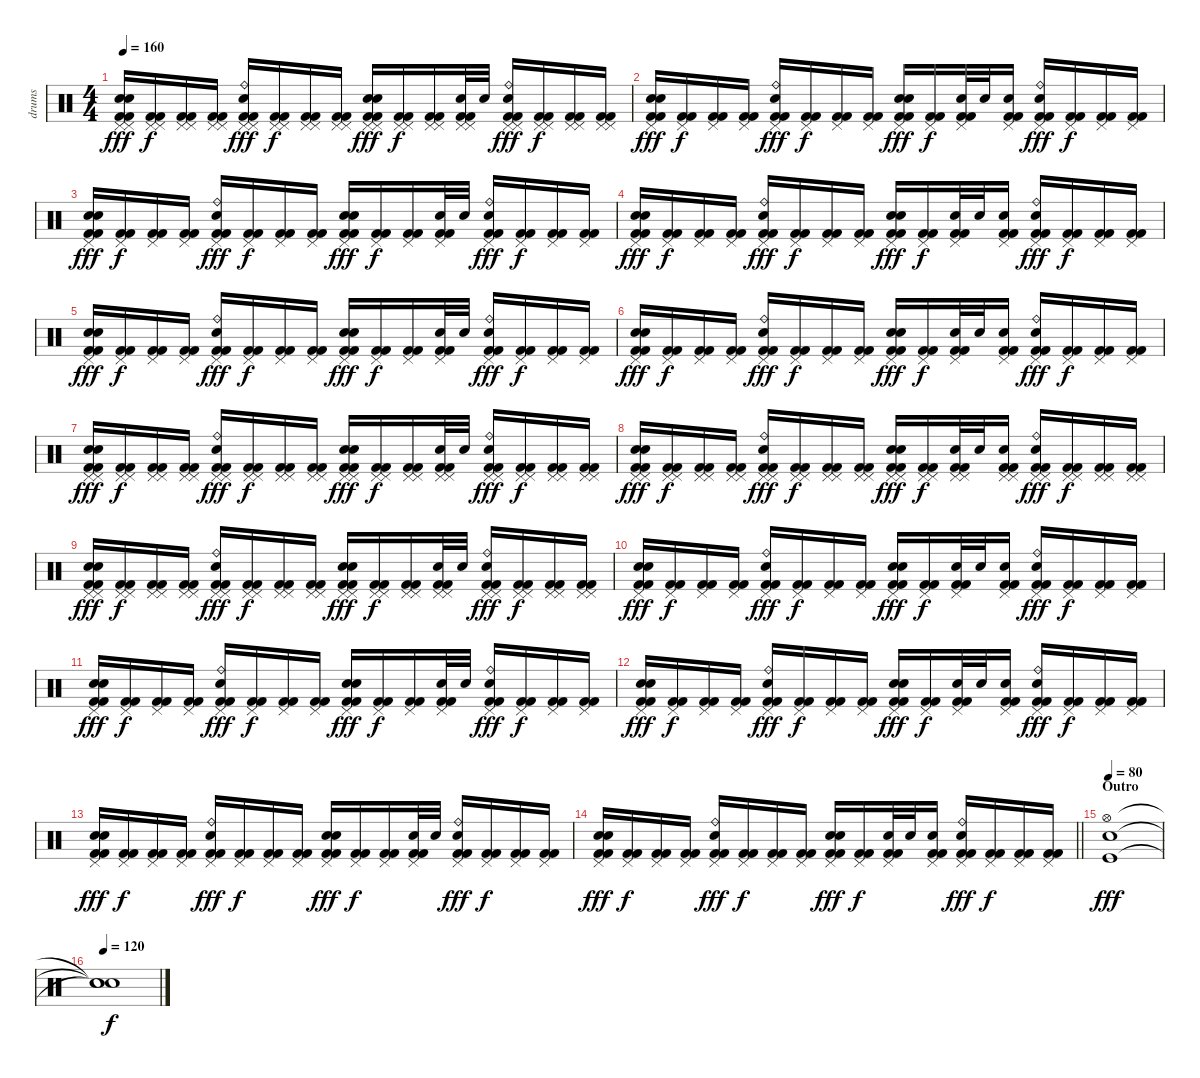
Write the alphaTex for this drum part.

\track ("drums" "drums") {instrument percussion}
\staff {score}
\articulation defaults
\ts (4 4)
\tempo 160
\clef neutral
\ks c
("Electric Snare (hit)" "Electric Snare (hit)" "Pedal Hi-Hat (hit)" "Pedal Hi-Hat (hit)" "Kick (hit) 2" "Kick (hit) 2").16{dy fff} ("Pedal Hi-Hat (hit)" "Pedal Hi-Hat (hit)" "Kick (hit) 2" "Kick (hit) 2").16{dy f} ("Pedal Hi-Hat (hit)" "Pedal Hi-Hat (hit)" "Kick (hit) 2" "Kick (hit) 2").16 ("Pedal Hi-Hat (hit)" "Pedal Hi-Hat (hit)" "Kick (hit) 2" "Kick (hit) 2").16 ("Ride (bell)" "Snare (hit) 2" "Pedal Hi-Hat (hit)" "Pedal Hi-Hat (hit)" "Kick (hit) 2" "Kick (hit) 2").16{dy fff} ("Pedal Hi-Hat (hit)" "Pedal Hi-Hat (hit)" "Kick (hit) 2" "Kick (hit) 2").16{dy f} ("Pedal Hi-Hat (hit)" "Pedal Hi-Hat (hit)" "Kick (hit) 2" "Kick (hit) 2").16 ("Pedal Hi-Hat (hit)" "Pedal Hi-Hat (hit)" "Kick (hit) 2" "Kick (hit) 2").16 ("Electric Snare (hit)" "Electric Snare (hit)" "Pedal Hi-Hat (hit)" "Pedal Hi-Hat (hit)" "Kick (hit) 2" "Kick (hit) 2").16{dy fff} ("Pedal Hi-Hat (hit)" "Pedal Hi-Hat (hit)" "Kick (hit) 2" "Kick (hit) 2").16{dy f} ("Pedal Hi-Hat (hit)" "Pedal Hi-Hat (hit)" "Kick (hit) 2" "Kick (hit) 2").16 ("Electric Snare (hit)" "Pedal Hi-Hat (hit)" "Pedal Hi-Hat (hit)" "Kick (hit) 2" "Kick (hit) 2").32 "Electric Snare (hit)".32 ("Ride (bell)" "Electric Snare (hit)" "Pedal Hi-Hat (hit)" "Pedal Hi-Hat (hit)" "Kick (hit) 2" "Kick (hit) 2").16{dy fff} ("Pedal Hi-Hat (hit)" "Pedal Hi-Hat (hit)" "Kick (hit) 2" "Kick (hit) 2").16{dy f} ("Pedal Hi-Hat (hit)" "Pedal Hi-Hat (hit)" "Kick (hit) 2" "Kick (hit) 2").16 ("Pedal Hi-Hat (hit)" "Pedal Hi-Hat (hit)" "Kick (hit) 2" "Kick (hit) 2").16 |
("Electric Snare (hit)" "Electric Snare (hit)" "Pedal Hi-Hat (hit)" "Kick (hit) 2" "Kick (hit) 2").16{dy fff} ("Pedal Hi-Hat (hit)" "Kick (hit) 2" "Kick (hit) 2").16{dy f} ("Pedal Hi-Hat (hit)" "Kick (hit) 2" "Kick (hit) 2").16 ("Pedal Hi-Hat (hit)" "Kick (hit) 2" "Kick (hit) 2").16 ("Ride (bell)" "Snare (hit) 2" "Pedal Hi-Hat (hit)" "Kick (hit) 2" "Kick (hit) 2").16{dy fff} ("Pedal Hi-Hat (hit)" "Kick (hit) 2" "Kick (hit) 2").16{dy f} ("Pedal Hi-Hat (hit)" "Kick (hit) 2" "Kick (hit) 2").16 ("Pedal Hi-Hat (hit)" "Kick (hit) 2" "Kick (hit) 2").16 ("Electric Snare (hit)" "Electric Snare (hit)" "Pedal Hi-Hat (hit)" "Kick (hit) 2" "Kick (hit) 2").16{dy fff} ("Pedal Hi-Hat (hit)" "Kick (hit) 2" "Kick (hit) 2").16{dy f} ("Electric Snare (hit)" "Pedal Hi-Hat (hit)" "Kick (hit) 2" "Kick (hit) 2").32 "Electric Snare (hit)".32 ("Electric Snare (hit)" "Pedal Hi-Hat (hit)" "Kick (hit) 2" "Kick (hit) 2").16 ("Ride (bell)" "Snare (hit) 2" "Pedal Hi-Hat (hit)" "Kick (hit) 2" "Kick (hit) 2").16{dy fff} ("Pedal Hi-Hat (hit)" "Kick (hit) 2" "Kick (hit) 2").16{dy f} ("Pedal Hi-Hat (hit)" "Kick (hit) 2" "Kick (hit) 2").16 ("Pedal Hi-Hat (hit)" "Kick (hit) 2" "Kick (hit) 2").16 |
("Electric Snare (hit)" "Electric Snare (hit)" "Pedal Hi-Hat (hit)" "Kick (hit) 2" "Kick (hit) 2").16{dy fff} ("Pedal Hi-Hat (hit)" "Kick (hit) 2" "Kick (hit) 2").16{dy f} ("Pedal Hi-Hat (hit)" "Kick (hit) 2" "Kick (hit) 2").16 ("Pedal Hi-Hat (hit)" "Kick (hit) 2" "Kick (hit) 2").16 ("Ride (bell)" "Snare (hit) 2" "Pedal Hi-Hat (hit)" "Kick (hit) 2" "Kick (hit) 2").16{dy fff} ("Pedal Hi-Hat (hit)" "Kick (hit) 2" "Kick (hit) 2").16{dy f} ("Pedal Hi-Hat (hit)" "Kick (hit) 2" "Kick (hit) 2").16 ("Pedal Hi-Hat (hit)" "Kick (hit) 2" "Kick (hit) 2").16 ("Electric Snare (hit)" "Electric Snare (hit)" "Pedal Hi-Hat (hit)" "Kick (hit) 2" "Kick (hit) 2").16{dy fff} ("Pedal Hi-Hat (hit)" "Kick (hit) 2" "Kick (hit) 2").16{dy f} ("Pedal Hi-Hat (hit)" "Kick (hit) 2" "Kick (hit) 2").16 ("Electric Snare (hit)" "Pedal Hi-Hat (hit)" "Kick (hit) 2" "Kick (hit) 2").32 "Electric Snare (hit)".32 ("Ride (bell)" "Electric Snare (hit)" "Pedal Hi-Hat (hit)" "Kick (hit) 2" "Kick (hit) 2").16{dy fff} ("Pedal Hi-Hat (hit)" "Kick (hit) 2" "Kick (hit) 2").16{dy f} ("Pedal Hi-Hat (hit)" "Kick (hit) 2" "Kick (hit) 2").16 ("Pedal Hi-Hat (hit)" "Kick (hit) 2" "Kick (hit) 2").16 |
("Electric Snare (hit)" "Electric Snare (hit)" "Pedal Hi-Hat (hit)" "Kick (hit) 2" "Kick (hit) 2").16{dy fff} ("Pedal Hi-Hat (hit)" "Kick (hit) 2" "Kick (hit) 2").16{dy f} ("Pedal Hi-Hat (hit)" "Kick (hit) 2" "Kick (hit) 2").16 ("Pedal Hi-Hat (hit)" "Kick (hit) 2" "Kick (hit) 2").16 ("Ride (bell)" "Snare (hit) 2" "Pedal Hi-Hat (hit)" "Kick (hit) 2" "Kick (hit) 2").16{dy fff} ("Pedal Hi-Hat (hit)" "Kick (hit) 2" "Kick (hit) 2").16{dy f} ("Pedal Hi-Hat (hit)" "Kick (hit) 2" "Kick (hit) 2").16 ("Pedal Hi-Hat (hit)" "Kick (hit) 2" "Kick (hit) 2").16 ("Electric Snare (hit)" "Electric Snare (hit)" "Pedal Hi-Hat (hit)" "Kick (hit) 2" "Kick (hit) 2").16{dy fff} ("Pedal Hi-Hat (hit)" "Kick (hit) 2" "Kick (hit) 2").16{dy f} ("Electric Snare (hit)" "Pedal Hi-Hat (hit)" "Kick (hit) 2" "Kick (hit) 2").32 "Electric Snare (hit)".32 ("Electric Snare (hit)" "Pedal Hi-Hat (hit)" "Kick (hit) 2" "Kick (hit) 2").16 ("Ride (bell)" "Snare (hit) 2" "Pedal Hi-Hat (hit)" "Kick (hit) 2" "Kick (hit) 2").16{dy fff} ("Pedal Hi-Hat (hit)" "Kick (hit) 2" "Kick (hit) 2").16{dy f} ("Pedal Hi-Hat (hit)" "Kick (hit) 2" "Kick (hit) 2").16 ("Pedal Hi-Hat (hit)" "Kick (hit) 2" "Kick (hit) 2").16 |
("Electric Snare (hit)" "Electric Snare (hit)" "Pedal Hi-Hat (hit)" "Kick (hit) 2" "Kick (hit) 2").16{dy fff} ("Pedal Hi-Hat (hit)" "Kick (hit) 2" "Kick (hit) 2").16{dy f} ("Pedal Hi-Hat (hit)" "Kick (hit) 2" "Kick (hit) 2").16 ("Pedal Hi-Hat (hit)" "Kick (hit) 2" "Kick (hit) 2").16 ("Ride (bell)" "Snare (hit) 2" "Pedal Hi-Hat (hit)" "Kick (hit) 2" "Kick (hit) 2").16{dy fff} ("Pedal Hi-Hat (hit)" "Kick (hit) 2" "Kick (hit) 2").16{dy f} ("Pedal Hi-Hat (hit)" "Kick (hit) 2" "Kick (hit) 2").16 ("Pedal Hi-Hat (hit)" "Kick (hit) 2" "Kick (hit) 2").16 ("Electric Snare (hit)" "Electric Snare (hit)" "Pedal Hi-Hat (hit)" "Kick (hit) 2" "Kick (hit) 2").16{dy fff} ("Pedal Hi-Hat (hit)" "Kick (hit) 2" "Kick (hit) 2").16{dy f} ("Pedal Hi-Hat (hit)" "Kick (hit) 2" "Kick (hit) 2").16 ("Electric Snare (hit)" "Pedal Hi-Hat (hit)" "Kick (hit) 2" "Kick (hit) 2").32 "Electric Snare (hit)".32 ("Ride (bell)" "Electric Snare (hit)" "Pedal Hi-Hat (hit)" "Kick (hit) 2" "Kick (hit) 2").16{dy fff} ("Pedal Hi-Hat (hit)" "Kick (hit) 2" "Kick (hit) 2").16{dy f} ("Pedal Hi-Hat (hit)" "Kick (hit) 2" "Kick (hit) 2").16 ("Pedal Hi-Hat (hit)" "Kick (hit) 2" "Kick (hit) 2").16 |
("Electric Snare (hit)" "Electric Snare (hit)" "Pedal Hi-Hat (hit)" "Kick (hit) 2" "Kick (hit) 2").16{dy fff} ("Pedal Hi-Hat (hit)" "Kick (hit) 2" "Kick (hit) 2").16{dy f} ("Pedal Hi-Hat (hit)" "Kick (hit) 2" "Kick (hit) 2").16 ("Pedal Hi-Hat (hit)" "Kick (hit) 2" "Kick (hit) 2").16 ("Ride (bell)" "Snare (hit) 2" "Pedal Hi-Hat (hit)" "Kick (hit) 2" "Kick (hit) 2").16{dy fff} ("Pedal Hi-Hat (hit)" "Kick (hit) 2" "Kick (hit) 2").16{dy f} ("Pedal Hi-Hat (hit)" "Kick (hit) 2" "Kick (hit) 2").16 ("Pedal Hi-Hat (hit)" "Kick (hit) 2" "Kick (hit) 2").16 ("Electric Snare (hit)" "Electric Snare (hit)" "Pedal Hi-Hat (hit)" "Kick (hit) 2" "Kick (hit) 2").16{dy fff} ("Pedal Hi-Hat (hit)" "Kick (hit) 2" "Kick (hit) 2").16{dy f} ("Electric Snare (hit)" "Pedal Hi-Hat (hit)" "Kick (hit) 2" "Kick (hit) 2").32 "Electric Snare (hit)".32 ("Electric Snare (hit)" "Pedal Hi-Hat (hit)" "Kick (hit) 2" "Kick (hit) 2").16 ("Ride (bell)" "Snare (hit) 2" "Pedal Hi-Hat (hit)" "Kick (hit) 2" "Kick (hit) 2").16{dy fff} ("Pedal Hi-Hat (hit)" "Kick (hit) 2" "Kick (hit) 2").16{dy f} ("Pedal Hi-Hat (hit)" "Kick (hit) 2" "Kick (hit) 2").16 ("Pedal Hi-Hat (hit)" "Kick (hit) 2" "Kick (hit) 2").16 |
("Electric Snare (hit)" "Electric Snare (hit)" "Pedal Hi-Hat (hit)" "Pedal Hi-Hat (hit)" "Kick (hit) 2" "Kick (hit) 2").16{dy fff} ("Pedal Hi-Hat (hit)" "Pedal Hi-Hat (hit)" "Kick (hit) 2" "Kick (hit) 2").16{dy f} ("Pedal Hi-Hat (hit)" "Pedal Hi-Hat (hit)" "Kick (hit) 2" "Kick (hit) 2").16 ("Pedal Hi-Hat (hit)" "Pedal Hi-Hat (hit)" "Kick (hit) 2" "Kick (hit) 2").16 ("Ride (bell)" "Snare (hit) 2" "Pedal Hi-Hat (hit)" "Pedal Hi-Hat (hit)" "Kick (hit) 2" "Kick (hit) 2").16{dy fff} ("Pedal Hi-Hat (hit)" "Pedal Hi-Hat (hit)" "Kick (hit) 2" "Kick (hit) 2").16{dy f} ("Pedal Hi-Hat (hit)" "Pedal Hi-Hat (hit)" "Kick (hit) 2" "Kick (hit) 2").16 ("Pedal Hi-Hat (hit)" "Pedal Hi-Hat (hit)" "Kick (hit) 2" "Kick (hit) 2").16 ("Electric Snare (hit)" "Electric Snare (hit)" "Pedal Hi-Hat (hit)" "Pedal Hi-Hat (hit)" "Kick (hit) 2" "Kick (hit) 2").16{dy fff} ("Pedal Hi-Hat (hit)" "Pedal Hi-Hat (hit)" "Kick (hit) 2" "Kick (hit) 2").16{dy f} ("Pedal Hi-Hat (hit)" "Pedal Hi-Hat (hit)" "Kick (hit) 2" "Kick (hit) 2").16 ("Electric Snare (hit)" "Pedal Hi-Hat (hit)" "Pedal Hi-Hat (hit)" "Kick (hit) 2" "Kick (hit) 2").32 "Electric Snare (hit)".32 ("Ride (bell)" "Electric Snare (hit)" "Pedal Hi-Hat (hit)" "Pedal Hi-Hat (hit)" "Kick (hit) 2" "Kick (hit) 2").16{dy fff} ("Pedal Hi-Hat (hit)" "Pedal Hi-Hat (hit)" "Kick (hit) 2" "Kick (hit) 2").16{dy f} ("Pedal Hi-Hat (hit)" "Pedal Hi-Hat (hit)" "Kick (hit) 2" "Kick (hit) 2").16 ("Pedal Hi-Hat (hit)" "Pedal Hi-Hat (hit)" "Kick (hit) 2" "Kick (hit) 2").16 |
("Electric Snare (hit)" "Electric Snare (hit)" "Pedal Hi-Hat (hit)" "Pedal Hi-Hat (hit)" "Kick (hit) 2" "Kick (hit) 2").16{dy fff} ("Pedal Hi-Hat (hit)" "Pedal Hi-Hat (hit)" "Kick (hit) 2" "Kick (hit) 2").16{dy f} ("Pedal Hi-Hat (hit)" "Pedal Hi-Hat (hit)" "Kick (hit) 2" "Kick (hit) 2").16 ("Pedal Hi-Hat (hit)" "Pedal Hi-Hat (hit)" "Kick (hit) 2" "Kick (hit) 2").16 ("Ride (bell)" "Snare (hit) 2" "Pedal Hi-Hat (hit)" "Pedal Hi-Hat (hit)" "Kick (hit) 2" "Kick (hit) 2").16{dy fff} ("Pedal Hi-Hat (hit)" "Pedal Hi-Hat (hit)" "Kick (hit) 2" "Kick (hit) 2").16{dy f} ("Pedal Hi-Hat (hit)" "Pedal Hi-Hat (hit)" "Kick (hit) 2" "Kick (hit) 2").16 ("Pedal Hi-Hat (hit)" "Pedal Hi-Hat (hit)" "Kick (hit) 2" "Kick (hit) 2").16 ("Electric Snare (hit)" "Electric Snare (hit)" "Pedal Hi-Hat (hit)" "Pedal Hi-Hat (hit)" "Kick (hit) 2" "Kick (hit) 2").16{dy fff} ("Pedal Hi-Hat (hit)" "Pedal Hi-Hat (hit)" "Kick (hit) 2" "Kick (hit) 2").16{dy f} ("Electric Snare (hit)" "Pedal Hi-Hat (hit)" "Pedal Hi-Hat (hit)" "Kick (hit) 2" "Kick (hit) 2").32 "Electric Snare (hit)".32 ("Electric Snare (hit)" "Pedal Hi-Hat (hit)" "Pedal Hi-Hat (hit)" "Kick (hit) 2" "Kick (hit) 2").16 ("Ride (bell)" "Snare (hit) 2" "Pedal Hi-Hat (hit)" "Pedal Hi-Hat (hit)" "Kick (hit) 2" "Kick (hit) 2").16{dy fff} ("Pedal Hi-Hat (hit)" "Pedal Hi-Hat (hit)" "Kick (hit) 2" "Kick (hit) 2").16{dy f} ("Pedal Hi-Hat (hit)" "Pedal Hi-Hat (hit)" "Kick (hit) 2" "Kick (hit) 2").16 ("Pedal Hi-Hat (hit)" "Pedal Hi-Hat (hit)" "Kick (hit) 2" "Kick (hit) 2").16 |
("Electric Snare (hit)" "Electric Snare (hit)" "Pedal Hi-Hat (hit)" "Pedal Hi-Hat (hit)" "Kick (hit) 2" "Kick (hit) 2").16{dy fff} ("Pedal Hi-Hat (hit)" "Pedal Hi-Hat (hit)" "Kick (hit) 2" "Kick (hit) 2").16{dy f} ("Pedal Hi-Hat (hit)" "Pedal Hi-Hat (hit)" "Kick (hit) 2" "Kick (hit) 2").16 ("Pedal Hi-Hat (hit)" "Pedal Hi-Hat (hit)" "Kick (hit) 2" "Kick (hit) 2").16 ("Ride (bell)" "Snare (hit) 2" "Pedal Hi-Hat (hit)" "Pedal Hi-Hat (hit)" "Kick (hit) 2" "Kick (hit) 2").16{dy fff} ("Pedal Hi-Hat (hit)" "Pedal Hi-Hat (hit)" "Kick (hit) 2" "Kick (hit) 2").16{dy f} ("Pedal Hi-Hat (hit)" "Pedal Hi-Hat (hit)" "Kick (hit) 2" "Kick (hit) 2").16 ("Pedal Hi-Hat (hit)" "Pedal Hi-Hat (hit)" "Kick (hit) 2" "Kick (hit) 2").16 ("Electric Snare (hit)" "Electric Snare (hit)" "Pedal Hi-Hat (hit)" "Pedal Hi-Hat (hit)" "Kick (hit) 2" "Kick (hit) 2").16{dy fff} ("Pedal Hi-Hat (hit)" "Pedal Hi-Hat (hit)" "Kick (hit) 2" "Kick (hit) 2").16{dy f} ("Pedal Hi-Hat (hit)" "Pedal Hi-Hat (hit)" "Kick (hit) 2" "Kick (hit) 2").16 ("Electric Snare (hit)" "Pedal Hi-Hat (hit)" "Pedal Hi-Hat (hit)" "Kick (hit) 2" "Kick (hit) 2").32 "Electric Snare (hit)".32 ("Ride (bell)" "Electric Snare (hit)" "Pedal Hi-Hat (hit)" "Pedal Hi-Hat (hit)" "Kick (hit) 2" "Kick (hit) 2").16{dy fff} ("Pedal Hi-Hat (hit)" "Pedal Hi-Hat (hit)" "Kick (hit) 2" "Kick (hit) 2").16{dy f} ("Pedal Hi-Hat (hit)" "Pedal Hi-Hat (hit)" "Kick (hit) 2" "Kick (hit) 2").16 ("Pedal Hi-Hat (hit)" "Pedal Hi-Hat (hit)" "Kick (hit) 2" "Kick (hit) 2").16 |
("Electric Snare (hit)" "Electric Snare (hit)" "Pedal Hi-Hat (hit)" "Kick (hit) 2" "Kick (hit) 2").16{dy fff} ("Pedal Hi-Hat (hit)" "Kick (hit) 2" "Kick (hit) 2").16{dy f} ("Pedal Hi-Hat (hit)" "Kick (hit) 2" "Kick (hit) 2").16 ("Pedal Hi-Hat (hit)" "Kick (hit) 2" "Kick (hit) 2").16 ("Ride (bell)" "Snare (hit) 2" "Pedal Hi-Hat (hit)" "Kick (hit) 2" "Kick (hit) 2").16{dy fff} ("Pedal Hi-Hat (hit)" "Kick (hit) 2" "Kick (hit) 2").16{dy f} ("Pedal Hi-Hat (hit)" "Kick (hit) 2" "Kick (hit) 2").16 ("Pedal Hi-Hat (hit)" "Kick (hit) 2" "Kick (hit) 2").16 ("Electric Snare (hit)" "Electric Snare (hit)" "Pedal Hi-Hat (hit)" "Kick (hit) 2" "Kick (hit) 2").16{dy fff} ("Pedal Hi-Hat (hit)" "Kick (hit) 2" "Kick (hit) 2").16{dy f} ("Electric Snare (hit)" "Pedal Hi-Hat (hit)" "Kick (hit) 2" "Kick (hit) 2").32 "Electric Snare (hit)".32 ("Electric Snare (hit)" "Pedal Hi-Hat (hit)" "Kick (hit) 2" "Kick (hit) 2").16 ("Ride (bell)" "Snare (hit) 2" "Pedal Hi-Hat (hit)" "Kick (hit) 2" "Kick (hit) 2").16{dy fff} ("Pedal Hi-Hat (hit)" "Kick (hit) 2" "Kick (hit) 2").16{dy f} ("Pedal Hi-Hat (hit)" "Kick (hit) 2" "Kick (hit) 2").16 ("Pedal Hi-Hat (hit)" "Kick (hit) 2" "Kick (hit) 2").16 |
("Electric Snare (hit)" "Electric Snare (hit)" "Pedal Hi-Hat (hit)" "Kick (hit) 2" "Kick (hit) 2").16{dy fff} ("Pedal Hi-Hat (hit)" "Kick (hit) 2" "Kick (hit) 2").16{dy f} ("Pedal Hi-Hat (hit)" "Kick (hit) 2" "Kick (hit) 2").16 ("Pedal Hi-Hat (hit)" "Kick (hit) 2" "Kick (hit) 2").16 ("Ride (bell)" "Snare (hit) 2" "Pedal Hi-Hat (hit)" "Kick (hit) 2" "Kick (hit) 2").16{dy fff} ("Pedal Hi-Hat (hit)" "Kick (hit) 2" "Kick (hit) 2").16{dy f} ("Pedal Hi-Hat (hit)" "Kick (hit) 2" "Kick (hit) 2").16 ("Pedal Hi-Hat (hit)" "Kick (hit) 2" "Kick (hit) 2").16 ("Electric Snare (hit)" "Electric Snare (hit)" "Pedal Hi-Hat (hit)" "Kick (hit) 2" "Kick (hit) 2").16{dy fff} ("Pedal Hi-Hat (hit)" "Kick (hit) 2" "Kick (hit) 2").16{dy f} ("Pedal Hi-Hat (hit)" "Kick (hit) 2" "Kick (hit) 2").16 ("Electric Snare (hit)" "Pedal Hi-Hat (hit)" "Kick (hit) 2" "Kick (hit) 2").32 "Electric Snare (hit)".32 ("Ride (bell)" "Electric Snare (hit)" "Pedal Hi-Hat (hit)" "Kick (hit) 2" "Kick (hit) 2").16{dy fff} ("Pedal Hi-Hat (hit)" "Kick (hit) 2" "Kick (hit) 2").16{dy f} ("Pedal Hi-Hat (hit)" "Kick (hit) 2" "Kick (hit) 2").16 ("Pedal Hi-Hat (hit)" "Kick (hit) 2" "Kick (hit) 2").16 |
("Electric Snare (hit)" "Electric Snare (hit)" "Pedal Hi-Hat (hit)" "Kick (hit) 2" "Kick (hit) 2").16{dy fff} ("Pedal Hi-Hat (hit)" "Kick (hit) 2" "Kick (hit) 2").16{dy f} ("Pedal Hi-Hat (hit)" "Kick (hit) 2" "Kick (hit) 2").16 ("Pedal Hi-Hat (hit)" "Kick (hit) 2" "Kick (hit) 2").16 ("Ride (bell)" "Snare (hit) 2" "Pedal Hi-Hat (hit)" "Kick (hit) 2" "Kick (hit) 2").16{dy fff} ("Pedal Hi-Hat (hit)" "Kick (hit) 2" "Kick (hit) 2").16{dy f} ("Pedal Hi-Hat (hit)" "Kick (hit) 2" "Kick (hit) 2").16 ("Pedal Hi-Hat (hit)" "Kick (hit) 2" "Kick (hit) 2").16 ("Electric Snare (hit)" "Electric Snare (hit)" "Pedal Hi-Hat (hit)" "Kick (hit) 2" "Kick (hit) 2").16{dy fff} ("Pedal Hi-Hat (hit)" "Kick (hit) 2" "Kick (hit) 2").16{dy f} ("Electric Snare (hit)" "Pedal Hi-Hat (hit)" "Kick (hit) 2" "Kick (hit) 2").32 "Electric Snare (hit)".32 ("Electric Snare (hit)" "Pedal Hi-Hat (hit)" "Kick (hit) 2" "Kick (hit) 2").16 ("Ride (bell)" "Snare (hit) 2" "Pedal Hi-Hat (hit)" "Kick (hit) 2" "Kick (hit) 2").16{dy fff} ("Pedal Hi-Hat (hit)" "Kick (hit) 2" "Kick (hit) 2").16{dy f} ("Pedal Hi-Hat (hit)" "Kick (hit) 2" "Kick (hit) 2").16 ("Pedal Hi-Hat (hit)" "Kick (hit) 2" "Kick (hit) 2").16 |
("Electric Snare (hit)" "Electric Snare (hit)" "Pedal Hi-Hat (hit)" "Kick (hit) 2" "Kick (hit) 2").16{dy fff} ("Pedal Hi-Hat (hit)" "Kick (hit) 2" "Kick (hit) 2").16{dy f} ("Pedal Hi-Hat (hit)" "Kick (hit) 2" "Kick (hit) 2").16 ("Pedal Hi-Hat (hit)" "Kick (hit) 2" "Kick (hit) 2").16 ("Ride (bell)" "Snare (hit) 2" "Pedal Hi-Hat (hit)" "Kick (hit) 2" "Kick (hit) 2").16{dy fff} ("Pedal Hi-Hat (hit)" "Kick (hit) 2" "Kick (hit) 2").16{dy f} ("Pedal Hi-Hat (hit)" "Kick (hit) 2" "Kick (hit) 2").16 ("Pedal Hi-Hat (hit)" "Kick (hit) 2" "Kick (hit) 2").16 ("Electric Snare (hit)" "Electric Snare (hit)" "Pedal Hi-Hat (hit)" "Kick (hit) 2" "Kick (hit) 2").16{dy fff} ("Pedal Hi-Hat (hit)" "Kick (hit) 2" "Kick (hit) 2").16{dy f} ("Pedal Hi-Hat (hit)" "Kick (hit) 2" "Kick (hit) 2").16 ("Electric Snare (hit)" "Pedal Hi-Hat (hit)" "Kick (hit) 2" "Kick (hit) 2").32 "Electric Snare (hit)".32 ("Ride (bell)" "Electric Snare (hit)" "Pedal Hi-Hat (hit)" "Kick (hit) 2" "Kick (hit) 2").16{dy fff} ("Pedal Hi-Hat (hit)" "Kick (hit) 2" "Kick (hit) 2").16{dy f} ("Pedal Hi-Hat (hit)" "Kick (hit) 2" "Kick (hit) 2").16 ("Pedal Hi-Hat (hit)" "Kick (hit) 2" "Kick (hit) 2").16 |
\barLineRight lightlight
("Electric Snare (hit)" "Electric Snare (hit)" "Pedal Hi-Hat (hit)" "Kick (hit) 2" "Kick (hit) 2").16{dy fff} ("Pedal Hi-Hat (hit)" "Kick (hit) 2" "Kick (hit) 2").16{dy f} ("Pedal Hi-Hat (hit)" "Kick (hit) 2" "Kick (hit) 2").16 ("Pedal Hi-Hat (hit)" "Kick (hit) 2" "Kick (hit) 2").16 ("Ride (bell)" "Snare (hit) 2" "Pedal Hi-Hat (hit)" "Kick (hit) 2" "Kick (hit) 2").16{dy fff} ("Pedal Hi-Hat (hit)" "Kick (hit) 2" "Kick (hit) 2").16{dy f} ("Pedal Hi-Hat (hit)" "Kick (hit) 2" "Kick (hit) 2").16 ("Pedal Hi-Hat (hit)" "Kick (hit) 2" "Kick (hit) 2").16 ("Electric Snare (hit)" "Electric Snare (hit)" "Pedal Hi-Hat (hit)" "Kick (hit) 2" "Kick (hit) 2").16{dy fff} ("Pedal Hi-Hat (hit)" "Kick (hit) 2" "Kick (hit) 2").16{dy f} ("Electric Snare (hit)" "Pedal Hi-Hat (hit)" "Kick (hit) 2" "Kick (hit) 2").32 "Electric Snare (hit)".32 ("Electric Snare (hit)" "Pedal Hi-Hat (hit)" "Kick (hit) 2" "Kick (hit) 2").16 ("Ride (bell)" "Snare (hit) 2" "Pedal Hi-Hat (hit)" "Kick (hit) 2" "Kick (hit) 2").16{dy fff} ("Pedal Hi-Hat (hit)" "Kick (hit) 2" "Kick (hit) 2").16{dy f} ("Pedal Hi-Hat (hit)" "Kick (hit) 2" "Kick (hit) 2").16 ("Pedal Hi-Hat (hit)" "Kick (hit) 2" "Kick (hit) 2").16 |
\section ("" "Outro")
\tempo 80
("Kick (hit)" "Electric Snare (hit)" "Hi-Hat (open)").1{dy fff} |
\tempo 120
("Snare (hit)"{t} "Snare (hit)"{t} "Snare (hit)"{t}).1{dy f}
